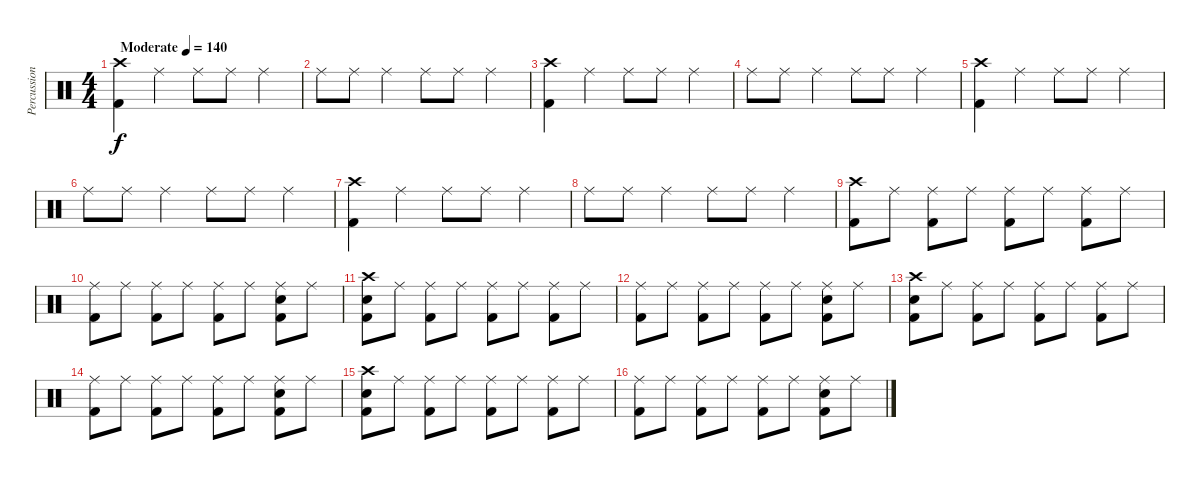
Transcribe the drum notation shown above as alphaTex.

\track ("Percussion" "Percussion") {instrument percussion}
\staff {score}
\articulation defaults
\ts (4 4)
\tempo (140 "Moderate")
\clef neutral
\ks c
("Crash high (hit)" "Kick (hit) 2").4{dy f} "Ride (middle)".4 "Ride (middle)".8 "Ride (middle)".8 "Ride (middle)".4 |
"Ride (middle)".8 "Ride (middle)".8 "Ride (middle)".4 "Ride (middle)".8 "Ride (middle)".8 "Ride (middle)".4 |
("Crash high (hit)" "Kick (hit) 2").4 "Ride (middle)".4 "Ride (middle)".8 "Ride (middle)".8 "Ride (middle)".4 |
"Ride (middle)".8 "Ride (middle)".8 "Ride (middle)".4 "Ride (middle)".8 "Ride (middle)".8 "Ride (middle)".4 |
("Crash high (hit)" "Kick (hit) 2").4 "Ride (middle)".4 "Ride (middle)".8 "Ride (middle)".8 "Ride (middle)".4 |
"Ride (middle)".8 "Ride (middle)".8 "Ride (middle)".4 "Ride (middle)".8 "Ride (middle)".8 "Ride (middle)".4 |
("Crash high (hit)" "Kick (hit) 2").4 "Ride (middle)".4 "Ride (middle)".8 "Ride (middle)".8 "Ride (middle)".4 |
"Ride (middle)".8 "Ride (middle)".8 "Ride (middle)".4 "Ride (middle)".8 "Ride (middle)".8 "Ride (middle)".4 |
("Crash high (hit)" "Kick (hit) 2").8 "Ride (middle)".8 ("Ride (middle)" "Kick (hit) 2").8 "Ride (middle)".8 ("Ride (middle)" "Kick (hit) 2").8 "Ride (middle)".8 ("Ride (middle)" "Kick (hit) 2").8 "Ride (middle)".8 |
("Ride (middle)" "Kick (hit) 2").8 "Ride (middle)".8 ("Ride (middle)" "Kick (hit) 2").8 "Ride (middle)".8 ("Ride (middle)" "Kick (hit) 2").8 "Ride (middle)".8 ("Electric Snare (hit)" "Ride (middle)" "Kick (hit) 2").8 "Ride (middle)".8 |
("Crash high (hit)" "Electric Snare (hit)" "Kick (hit) 2").8 "Ride (middle)".8 ("Ride (middle)" "Kick (hit) 2").8 "Ride (middle)".8 ("Ride (middle)" "Kick (hit) 2").8 "Ride (middle)".8 ("Ride (middle)" "Kick (hit) 2").8 "Ride (middle)".8 |
("Ride (middle)" "Kick (hit) 2").8 "Ride (middle)".8 ("Ride (middle)" "Kick (hit) 2").8 "Ride (middle)".8 ("Ride (middle)" "Kick (hit) 2").8 "Ride (middle)".8 ("Electric Snare (hit)" "Ride (middle)" "Kick (hit) 2").8 "Ride (middle)".8 |
("Crash high (hit)" "Electric Snare (hit)" "Kick (hit) 2").8 "Ride (middle)".8 ("Ride (middle)" "Kick (hit) 2").8 "Ride (middle)".8 ("Ride (middle)" "Kick (hit) 2").8 "Ride (middle)".8 ("Ride (middle)" "Kick (hit) 2").8 "Ride (middle)".8 |
("Ride (middle)" "Kick (hit) 2").8 "Ride (middle)".8 ("Ride (middle)" "Kick (hit) 2").8 "Ride (middle)".8 ("Ride (middle)" "Kick (hit) 2").8 "Ride (middle)".8 ("Electric Snare (hit)" "Ride (middle)" "Kick (hit) 2").8 "Ride (middle)".8 |
("Crash high (hit)" "Electric Snare (hit)" "Kick (hit) 2").8 "Ride (middle)".8 ("Ride (middle)" "Kick (hit) 2").8 "Ride (middle)".8 ("Ride (middle)" "Kick (hit) 2").8 "Ride (middle)".8 ("Ride (middle)" "Kick (hit) 2").8 "Ride (middle)".8 |
("Ride (middle)" "Kick (hit) 2").8 "Ride (middle)".8 ("Ride (middle)" "Kick (hit) 2").8 "Ride (middle)".8 ("Ride (middle)" "Kick (hit) 2").8 "Ride (middle)".8 ("Electric Snare (hit)" "Ride (middle)" "Kick (hit) 2").8 "Ride (middle)".8
